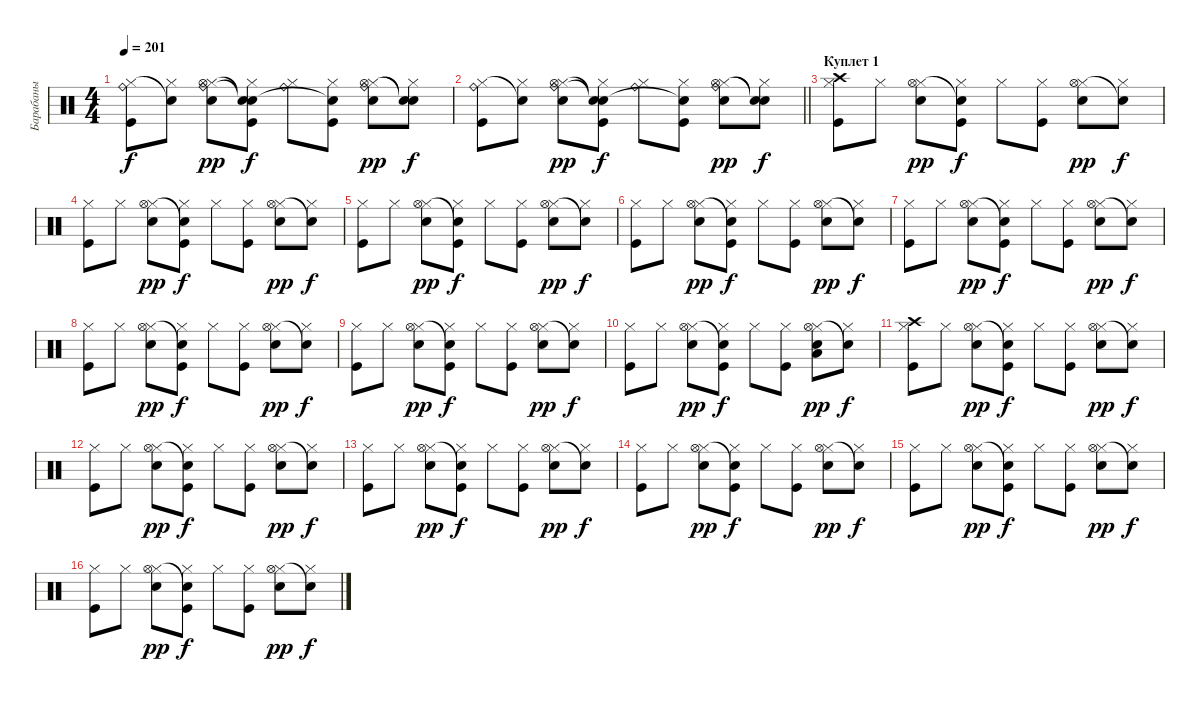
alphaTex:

\track ("Барабаны" "Барабаны") {instrument percussion}
\staff {score}
\articulation defaults
\ts (4 4)
\tempo 201
\clef neutral
\ks c
("Kick (hit)" "Hi-Hat (closed)" "Ride (bell)").8{dy f} ("Hi-Hat (closed)" "Snare (hit)"{t}).8 ("Snare (hit) 2" "Hi-Hat (closed)" "Hi-Hat (open)" "Ride (bell)").8{dy pp} ("Kick (hit)" "Hi-Hat (closed)" "Snare (hit)"{t} "Snare (hit)"{t}).8{dy f} ("Hi-Hat (closed)" "Ride (bell)").8 ("Kick (hit)" "Hi-Hat (closed)" "Snare (hit)"{t}).8 ("Snare (hit) 2" "Hi-Hat (closed)" "Hi-Hat (open)" "Ride (bell)").8{dy pp} ("Hi-Hat (closed)" "Snare (hit)"{t} "Snare (hit)"{t}).8{dy f} |
\barLineRight lightlight
("Kick (hit)" "Hi-Hat (closed)" "Ride (bell)").8 ("Hi-Hat (closed)" "Snare (hit)"{t}).8 ("Snare (hit) 2" "Hi-Hat (closed)" "Hi-Hat (open)" "Ride (bell)").8{dy pp} ("Kick (hit)" "Hi-Hat (closed)" "Snare (hit)"{t} "Snare (hit)"{t}).8{dy f} ("Hi-Hat (closed)" "Ride (bell)").8 ("Kick (hit)" "Hi-Hat (closed)" "Snare (hit)"{t}).8 ("Snare (hit) 2" "Hi-Hat (closed)" "Hi-Hat (open)" "Ride (bell)").8{dy pp} ("Hi-Hat (closed)" "Snare (hit)"{t} "Snare (hit)"{t}).8{dy f} |
\section ("" "Куплет 1")
("Kick (hit)" "Hi-Hat (closed)" "Crash high (hit)").8 "Hi-Hat (closed)".8 ("Snare (hit) 2" "Hi-Hat (closed)" "Hi-Hat (open)").8{dy pp} ("Kick (hit)" "Hi-Hat (closed)" "Snare (hit)"{t}).8{dy f} "Hi-Hat (closed)".8 ("Kick (hit)" "Hi-Hat (closed)").8 ("Snare (hit) 2" "Hi-Hat (closed)" "Hi-Hat (open)").8{dy pp} ("Hi-Hat (closed)" "Snare (hit)"{t}).8{dy f} |
("Kick (hit)" "Hi-Hat (closed)").8 "Hi-Hat (closed)".8 ("Snare (hit) 2" "Hi-Hat (closed)" "Hi-Hat (open)").8{dy pp} ("Kick (hit)" "Hi-Hat (closed)" "Snare (hit)"{t}).8{dy f} "Hi-Hat (closed)".8 ("Kick (hit)" "Hi-Hat (closed)").8 ("Snare (hit) 2" "Hi-Hat (closed)" "Hi-Hat (open)").8{dy pp} ("Hi-Hat (closed)" "Snare (hit)"{t}).8{dy f} |
("Kick (hit)" "Hi-Hat (closed)").8 "Hi-Hat (closed)".8 ("Snare (hit) 2" "Hi-Hat (closed)" "Hi-Hat (open)").8{dy pp} ("Kick (hit)" "Hi-Hat (closed)" "Snare (hit)"{t}).8{dy f} "Hi-Hat (closed)".8 ("Kick (hit)" "Hi-Hat (closed)").8 ("Snare (hit) 2" "Hi-Hat (closed)" "Hi-Hat (open)").8{dy pp} ("Hi-Hat (closed)" "Snare (hit)"{t}).8{dy f} |
("Kick (hit)" "Hi-Hat (closed)").8 "Hi-Hat (closed)".8 ("Snare (hit) 2" "Hi-Hat (closed)" "Hi-Hat (open)").8{dy pp} ("Kick (hit)" "Hi-Hat (closed)" "Snare (hit)"{t}).8{dy f} "Hi-Hat (closed)".8 ("Kick (hit)" "Hi-Hat (closed)").8 ("Snare (hit) 2" "Hi-Hat (closed)" "Hi-Hat (open)").8{dy pp} ("Hi-Hat (closed)" "Snare (hit)"{t}).8{dy f} |
("Kick (hit)" "Hi-Hat (closed)").8 "Hi-Hat (closed)".8 ("Snare (hit) 2" "Hi-Hat (closed)" "Hi-Hat (open)").8{dy pp} ("Kick (hit)" "Hi-Hat (closed)" "Snare (hit)"{t}).8{dy f} "Hi-Hat (closed)".8 ("Kick (hit)" "Hi-Hat (closed)").8 ("Snare (hit) 2" "Hi-Hat (closed)" "Hi-Hat (open)").8{dy pp} ("Hi-Hat (closed)" "Snare (hit)"{t}).8{dy f} |
("Kick (hit)" "Hi-Hat (closed)").8 "Hi-Hat (closed)".8 ("Snare (hit) 2" "Hi-Hat (closed)" "Hi-Hat (open)").8{dy pp} ("Kick (hit)" "Hi-Hat (closed)" "Snare (hit)"{t}).8{dy f} "Hi-Hat (closed)".8 ("Kick (hit)" "Hi-Hat (closed)").8 ("Snare (hit) 2" "Hi-Hat (closed)" "Hi-Hat (open)").8{dy pp} ("Hi-Hat (closed)" "Snare (hit)"{t}).8{dy f} |
("Kick (hit)" "Hi-Hat (closed)").8 "Hi-Hat (closed)".8 ("Snare (hit) 2" "Hi-Hat (closed)" "Hi-Hat (open)").8{dy pp} ("Kick (hit)" "Hi-Hat (closed)" "Snare (hit)"{t}).8{dy f} "Hi-Hat (closed)".8 ("Kick (hit)" "Hi-Hat (closed)").8 ("Snare (hit) 2" "Hi-Hat (closed)" "Hi-Hat (open)").8{dy pp} ("Hi-Hat (closed)" "Snare (hit)"{t}).8{dy f} |
("Kick (hit)" "Hi-Hat (closed)").8 "Hi-Hat (closed)".8 ("Snare (hit) 2" "Hi-Hat (closed)" "Hi-Hat (open)").8{dy pp} ("Kick (hit)" "Hi-Hat (closed)" "Snare (hit)"{t}).8{dy f} "Hi-Hat (closed)".8 ("Kick (hit)" "Hi-Hat (closed)").8 ("Snare (hit) 2" "Hi-Hat (closed)" "Low Floor Tom (hit)" "Hi-Hat (open)").8{dy pp} ("Hi-Hat (closed)" "Snare (hit)"{t}).8{dy f} |
("Kick (hit)" "Hi-Hat (closed)" "Crash high (hit)").8 "Hi-Hat (closed)".8 ("Snare (hit) 2" "Hi-Hat (closed)" "Hi-Hat (open)").8{dy pp} ("Kick (hit)" "Hi-Hat (closed)" "Snare (hit)"{t}).8{dy f} "Hi-Hat (closed)".8 ("Kick (hit)" "Hi-Hat (closed)").8 ("Snare (hit) 2" "Hi-Hat (closed)" "Hi-Hat (open)").8{dy pp} ("Hi-Hat (closed)" "Snare (hit)"{t}).8{dy f} |
("Kick (hit)" "Hi-Hat (closed)").8 "Hi-Hat (closed)".8 ("Snare (hit) 2" "Hi-Hat (closed)" "Hi-Hat (open)").8{dy pp} ("Kick (hit)" "Hi-Hat (closed)" "Snare (hit)"{t}).8{dy f} "Hi-Hat (closed)".8 ("Kick (hit)" "Hi-Hat (closed)").8 ("Snare (hit) 2" "Hi-Hat (closed)" "Hi-Hat (open)").8{dy pp} ("Hi-Hat (closed)" "Snare (hit)"{t}).8{dy f} |
("Kick (hit)" "Hi-Hat (closed)").8 "Hi-Hat (closed)".8 ("Snare (hit) 2" "Hi-Hat (closed)" "Hi-Hat (open)").8{dy pp} ("Kick (hit)" "Hi-Hat (closed)" "Snare (hit)"{t}).8{dy f} "Hi-Hat (closed)".8 ("Kick (hit)" "Hi-Hat (closed)").8 ("Snare (hit) 2" "Hi-Hat (closed)" "Hi-Hat (open)").8{dy pp} ("Hi-Hat (closed)" "Snare (hit)"{t}).8{dy f} |
("Kick (hit)" "Hi-Hat (closed)").8 "Hi-Hat (closed)".8 ("Snare (hit) 2" "Hi-Hat (closed)" "Hi-Hat (open)").8{dy pp} ("Kick (hit)" "Hi-Hat (closed)" "Snare (hit)"{t}).8{dy f} "Hi-Hat (closed)".8 ("Kick (hit)" "Hi-Hat (closed)").8 ("Snare (hit) 2" "Hi-Hat (closed)" "Hi-Hat (open)").8{dy pp} ("Hi-Hat (closed)" "Snare (hit)"{t}).8{dy f} |
("Kick (hit)" "Hi-Hat (closed)").8 "Hi-Hat (closed)".8 ("Snare (hit) 2" "Hi-Hat (closed)" "Hi-Hat (open)").8{dy pp} ("Kick (hit)" "Hi-Hat (closed)" "Snare (hit)"{t}).8{dy f} "Hi-Hat (closed)".8 ("Kick (hit)" "Hi-Hat (closed)").8 ("Snare (hit) 2" "Hi-Hat (closed)" "Hi-Hat (open)").8{dy pp} ("Hi-Hat (closed)" "Snare (hit)"{t}).8{dy f} |
("Kick (hit)" "Hi-Hat (closed)").8 "Hi-Hat (closed)".8 ("Snare (hit) 2" "Hi-Hat (closed)" "Hi-Hat (open)").8{dy pp} ("Kick (hit)" "Hi-Hat (closed)" "Snare (hit)"{t}).8{dy f} "Hi-Hat (closed)".8 ("Kick (hit)" "Hi-Hat (closed)").8 ("Snare (hit) 2" "Hi-Hat (closed)" "Hi-Hat (open)").8{dy pp} ("Hi-Hat (closed)" "Snare (hit)"{t}).8{dy f}
